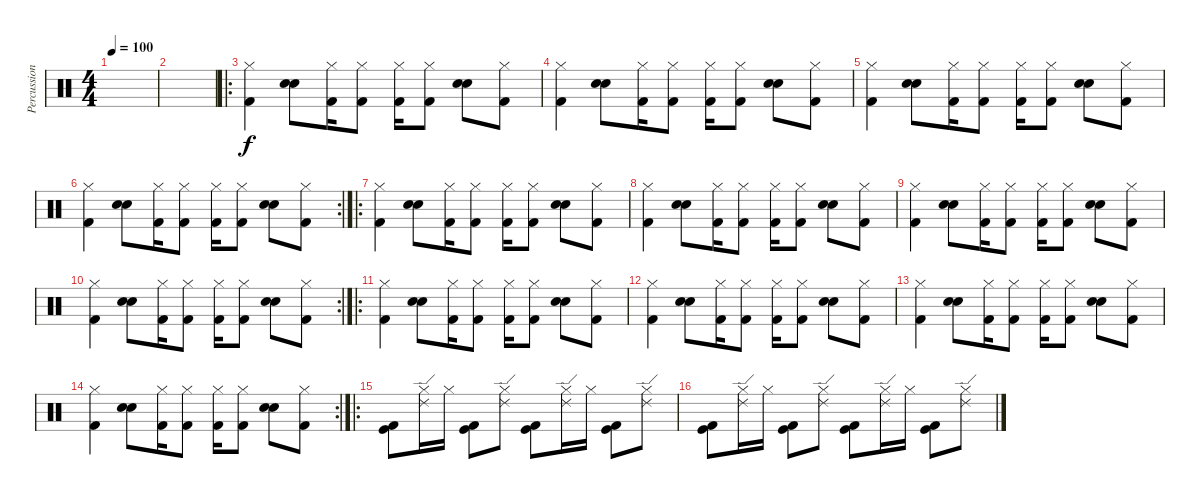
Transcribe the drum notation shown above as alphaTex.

\track ("Percussions" "Percussion") {instrument percussion}
\staff {score}
\articulation defaults
\ts (4 4)
\tempo 100
\clef neutral
\ks c
|
|
\ro
("Hi-Hat (closed)" "Kick (hit) 2").4 ("Snare (hit) 2" "Electric Snare (hit)").8 ("Hi-Hat (closed)" "Kick (hit) 2").16 ("Hi-Hat (closed)" "Kick (hit) 2").8 ("Hi-Hat (closed)" "Kick (hit) 2").16 ("Hi-Hat (closed)" "Kick (hit) 2").8 ("Snare (hit) 2" "Electric Snare (hit)").8 ("Hi-Hat (closed)" "Kick (hit) 2").8 |
("Hi-Hat (closed)" "Kick (hit) 2").4 ("Snare (hit) 2" "Electric Snare (hit)").8 ("Hi-Hat (closed)" "Kick (hit) 2").16 ("Hi-Hat (closed)" "Kick (hit) 2").8 ("Hi-Hat (closed)" "Kick (hit) 2").16 ("Hi-Hat (closed)" "Kick (hit) 2").8 ("Snare (hit) 2" "Electric Snare (hit)").8 ("Hi-Hat (closed)" "Kick (hit) 2").8 |
("Hi-Hat (closed)" "Kick (hit) 2").4 ("Snare (hit) 2" "Electric Snare (hit)").8 ("Hi-Hat (closed)" "Kick (hit) 2").16 ("Hi-Hat (closed)" "Kick (hit) 2").8 ("Hi-Hat (closed)" "Kick (hit) 2").16 ("Hi-Hat (closed)" "Kick (hit) 2").8 ("Snare (hit) 2" "Electric Snare (hit)").8 ("Hi-Hat (closed)" "Kick (hit) 2").8 |
\rc 2
("Hi-Hat (closed)" "Kick (hit) 2").4 ("Snare (hit) 2" "Electric Snare (hit)").8 ("Hi-Hat (closed)" "Kick (hit) 2").16 ("Hi-Hat (closed)" "Kick (hit) 2").8 ("Hi-Hat (closed)" "Kick (hit) 2").16 ("Hi-Hat (closed)" "Kick (hit) 2").8 ("Snare (hit) 2" "Electric Snare (hit)").8 ("Hi-Hat (closed)" "Kick (hit) 2").8 |
\ro
("Hi-Hat (closed)" "Kick (hit) 2").4 ("Snare (hit) 2" "Electric Snare (hit)").8 ("Hi-Hat (closed)" "Kick (hit) 2").16 ("Hi-Hat (closed)" "Kick (hit) 2").8 ("Hi-Hat (closed)" "Kick (hit) 2").16 ("Hi-Hat (closed)" "Kick (hit) 2").8 ("Snare (hit) 2" "Electric Snare (hit)").8 ("Hi-Hat (closed)" "Kick (hit) 2").8 |
("Hi-Hat (closed)" "Kick (hit) 2").4 ("Snare (hit) 2" "Electric Snare (hit)").8 ("Hi-Hat (closed)" "Kick (hit) 2").16 ("Hi-Hat (closed)" "Kick (hit) 2").8 ("Hi-Hat (closed)" "Kick (hit) 2").16 ("Hi-Hat (closed)" "Kick (hit) 2").8 ("Snare (hit) 2" "Electric Snare (hit)").8 ("Hi-Hat (closed)" "Kick (hit) 2").8 |
("Hi-Hat (closed)" "Kick (hit) 2").4 ("Snare (hit) 2" "Electric Snare (hit)").8 ("Hi-Hat (closed)" "Kick (hit) 2").16 ("Hi-Hat (closed)" "Kick (hit) 2").8 ("Hi-Hat (closed)" "Kick (hit) 2").16 ("Hi-Hat (closed)" "Kick (hit) 2").8 ("Snare (hit) 2" "Electric Snare (hit)").8 ("Hi-Hat (closed)" "Kick (hit) 2").8 |
\rc 2
("Hi-Hat (closed)" "Kick (hit) 2").4 ("Snare (hit) 2" "Electric Snare (hit)").8 ("Hi-Hat (closed)" "Kick (hit) 2").16 ("Hi-Hat (closed)" "Kick (hit) 2").8 ("Hi-Hat (closed)" "Kick (hit) 2").16 ("Hi-Hat (closed)" "Kick (hit) 2").8 ("Snare (hit) 2" "Electric Snare (hit)").8 ("Hi-Hat (closed)" "Kick (hit) 2").8 |
\ro
("Hi-Hat (closed)" "Kick (hit) 2").4 ("Snare (hit) 2" "Electric Snare (hit)").8 ("Hi-Hat (closed)" "Kick (hit) 2").16 ("Hi-Hat (closed)" "Kick (hit) 2").8 ("Hi-Hat (closed)" "Kick (hit) 2").16 ("Hi-Hat (closed)" "Kick (hit) 2").8 ("Snare (hit) 2" "Electric Snare (hit)").8 ("Hi-Hat (closed)" "Kick (hit) 2").8 |
("Hi-Hat (closed)" "Kick (hit) 2").4 ("Snare (hit) 2" "Electric Snare (hit)").8 ("Hi-Hat (closed)" "Kick (hit) 2").16 ("Hi-Hat (closed)" "Kick (hit) 2").8 ("Hi-Hat (closed)" "Kick (hit) 2").16 ("Hi-Hat (closed)" "Kick (hit) 2").8 ("Snare (hit) 2" "Electric Snare (hit)").8 ("Hi-Hat (closed)" "Kick (hit) 2").8 |
("Hi-Hat (closed)" "Kick (hit) 2").4 ("Snare (hit) 2" "Electric Snare (hit)").8 ("Hi-Hat (closed)" "Kick (hit) 2").16 ("Hi-Hat (closed)" "Kick (hit) 2").8 ("Hi-Hat (closed)" "Kick (hit) 2").16 ("Hi-Hat (closed)" "Kick (hit) 2").8 ("Snare (hit) 2" "Electric Snare (hit)").8 ("Hi-Hat (closed)" "Kick (hit) 2").8 |
\rc 2
("Hi-Hat (closed)" "Kick (hit) 2").4 ("Snare (hit) 2" "Electric Snare (hit)").8 ("Hi-Hat (closed)" "Kick (hit) 2").16 ("Hi-Hat (closed)" "Kick (hit) 2").8 ("Hi-Hat (closed)" "Kick (hit) 2").16 ("Hi-Hat (closed)" "Kick (hit) 2").8 ("Snare (hit) 2" "Electric Snare (hit)").8 ("Hi-Hat (closed)" "Kick (hit) 2").8 |
\ro
("Kick (hit)" "Kick (hit) 2").8 ("Ride (edge) 2" "Hi-Hat (closed)").16 "Hi-Hat (closed)".16 ("Kick (hit)" "Kick (hit) 2").8 ("Ride (edge) 2" "Hi-Hat (closed)").8 ("Kick (hit)" "Kick (hit) 2").8 ("Ride (edge) 2" "Hi-Hat (closed)").16 "Hi-Hat (closed)".16 ("Kick (hit)" "Kick (hit) 2").8 ("Ride (edge) 2" "Hi-Hat (closed)").8 |
("Kick (hit)" "Kick (hit) 2").8 ("Ride (edge) 2" "Hi-Hat (closed)").16 "Hi-Hat (closed)".16 ("Kick (hit)" "Kick (hit) 2").8 ("Ride (edge) 2" "Hi-Hat (closed)").8 ("Kick (hit)" "Kick (hit) 2").8 ("Ride (edge) 2" "Hi-Hat (closed)").16 "Hi-Hat (closed)".16 ("Kick (hit)" "Kick (hit) 2").8 ("Ride (edge) 2" "Hi-Hat (closed)").8
